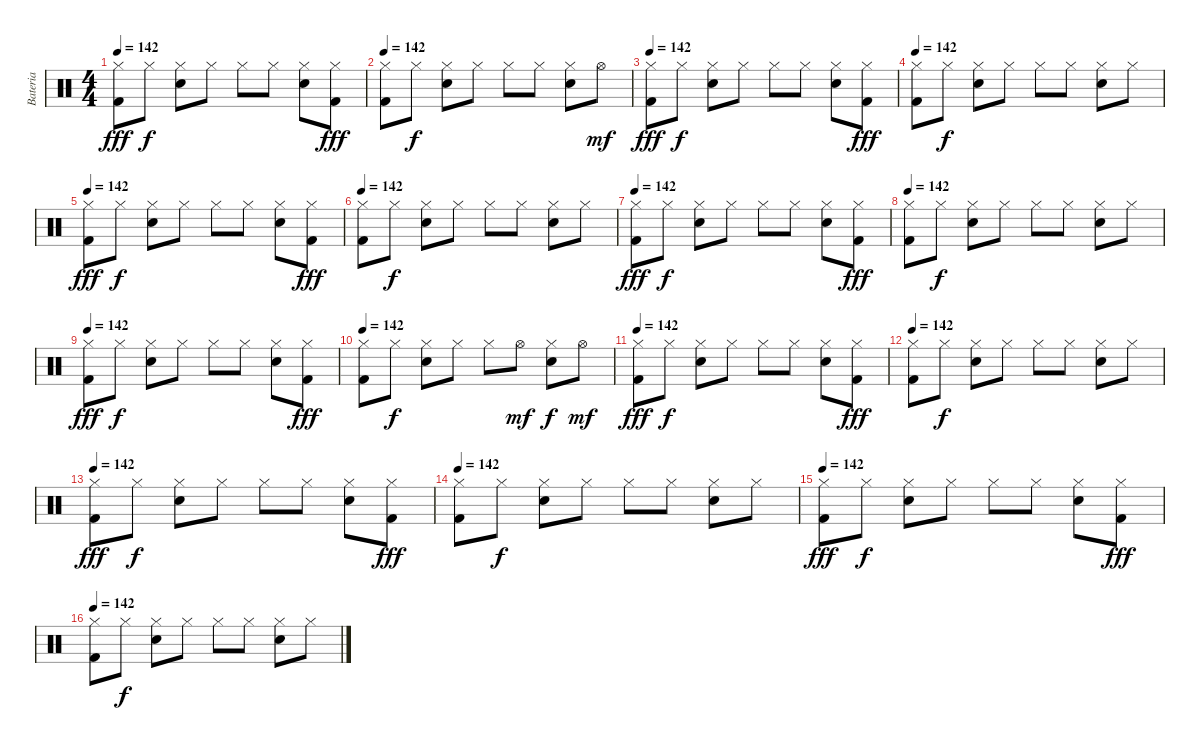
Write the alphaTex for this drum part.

\track ("Bateria" "Bateria") {instrument percussion}
\staff {score}
\articulation defaults
\ts (4 4)
\tempo 142
\clef neutral
\ks c
("Hi-Hat (closed)" "Kick (hit) 2").8{dy fff} "Hi-Hat (closed)".8{dy f} ("Hi-Hat (closed)" "Electric Snare (hit)").8 "Hi-Hat (closed)".8 "Hi-Hat (closed)".8 "Hi-Hat (closed)".8 ("Hi-Hat (closed)" "Electric Snare (hit)").8 ("Hi-Hat (closed)" "Kick (hit) 2").8{dy fff} |
\tempo 142
("Hi-Hat (closed)" "Kick (hit) 2").8 "Hi-Hat (closed)".8{dy f} ("Hi-Hat (closed)" "Electric Snare (hit)").8 "Hi-Hat (closed)".8 "Hi-Hat (closed)".8 "Hi-Hat (closed)".8 ("Hi-Hat (closed)" "Electric Snare (hit)").8 "Hi-Hat (open)".8{dy mf} |
\tempo 142
("Hi-Hat (closed)" "Kick (hit) 2").8{dy fff} "Hi-Hat (closed)".8{dy f} ("Hi-Hat (closed)" "Electric Snare (hit)").8 "Hi-Hat (closed)".8 "Hi-Hat (closed)".8 "Hi-Hat (closed)".8 ("Hi-Hat (closed)" "Electric Snare (hit)").8 ("Hi-Hat (closed)" "Kick (hit) 2").8{dy fff} |
\tempo 142
("Hi-Hat (closed)" "Kick (hit) 2").8 "Hi-Hat (closed)".8{dy f} ("Hi-Hat (closed)" "Electric Snare (hit)").8 "Hi-Hat (closed)".8 "Hi-Hat (closed)".8 "Hi-Hat (closed)".8 ("Hi-Hat (closed)" "Electric Snare (hit)").8 "Hi-Hat (closed)".8 |
\tempo 142
("Hi-Hat (closed)" "Kick (hit) 2").8{dy fff} "Hi-Hat (closed)".8{dy f} ("Hi-Hat (closed)" "Electric Snare (hit)").8 "Hi-Hat (closed)".8 "Hi-Hat (closed)".8 "Hi-Hat (closed)".8 ("Hi-Hat (closed)" "Electric Snare (hit)").8 ("Hi-Hat (closed)" "Kick (hit) 2").8{dy fff} |
\tempo 142
("Hi-Hat (closed)" "Kick (hit) 2").8 "Hi-Hat (closed)".8{dy f} ("Hi-Hat (closed)" "Electric Snare (hit)").8 "Hi-Hat (closed)".8 "Hi-Hat (closed)".8 "Hi-Hat (closed)".8 ("Hi-Hat (closed)" "Electric Snare (hit)").8 "Hi-Hat (closed)".8 |
\tempo 142
("Hi-Hat (closed)" "Kick (hit) 2").8{dy fff} "Hi-Hat (closed)".8{dy f} ("Hi-Hat (closed)" "Electric Snare (hit)").8 "Hi-Hat (closed)".8 "Hi-Hat (closed)".8 "Hi-Hat (closed)".8 ("Hi-Hat (closed)" "Electric Snare (hit)").8 ("Hi-Hat (closed)" "Kick (hit) 2").8{dy fff} |
\tempo 142
("Hi-Hat (closed)" "Kick (hit) 2").8 "Hi-Hat (closed)".8{dy f} ("Hi-Hat (closed)" "Electric Snare (hit)").8 "Hi-Hat (closed)".8 "Hi-Hat (closed)".8 "Hi-Hat (closed)".8 ("Hi-Hat (closed)" "Electric Snare (hit)").8 "Hi-Hat (closed)".8 |
\tempo 142
("Hi-Hat (closed)" "Kick (hit) 2").8{dy fff} "Hi-Hat (closed)".8{dy f} ("Hi-Hat (closed)" "Electric Snare (hit)").8 "Hi-Hat (closed)".8 "Hi-Hat (closed)".8 "Hi-Hat (closed)".8 ("Hi-Hat (closed)" "Electric Snare (hit)").8 ("Hi-Hat (closed)" "Kick (hit) 2").8{dy fff} |
\tempo 142
("Hi-Hat (closed)" "Kick (hit) 2").8 "Hi-Hat (closed)".8{dy f} ("Hi-Hat (closed)" "Electric Snare (hit)").8 "Hi-Hat (closed)".8 "Hi-Hat (closed)".8 "Hi-Hat (open)".8{dy mf} ("Hi-Hat (closed)" "Electric Snare (hit)").8{dy f} "Hi-Hat (open)".8{dy mf} |
\tempo 142
("Hi-Hat (closed)" "Kick (hit) 2").8{dy fff} "Hi-Hat (closed)".8{dy f} ("Hi-Hat (closed)" "Electric Snare (hit)").8 "Hi-Hat (closed)".8 "Hi-Hat (closed)".8 "Hi-Hat (closed)".8 ("Hi-Hat (closed)" "Electric Snare (hit)").8 ("Hi-Hat (closed)" "Kick (hit) 2").8{dy fff} |
\tempo 142
("Hi-Hat (closed)" "Kick (hit) 2").8 "Hi-Hat (closed)".8{dy f} ("Hi-Hat (closed)" "Electric Snare (hit)").8 "Hi-Hat (closed)".8 "Hi-Hat (closed)".8 "Hi-Hat (closed)".8 ("Hi-Hat (closed)" "Electric Snare (hit)").8 "Hi-Hat (closed)".8 |
\tempo 142
("Hi-Hat (closed)" "Kick (hit) 2").8{dy fff} "Hi-Hat (closed)".8{dy f} ("Hi-Hat (closed)" "Electric Snare (hit)").8 "Hi-Hat (closed)".8 "Hi-Hat (closed)".8 "Hi-Hat (closed)".8 ("Hi-Hat (closed)" "Electric Snare (hit)").8 ("Hi-Hat (closed)" "Kick (hit) 2").8{dy fff} |
\tempo 142
("Hi-Hat (closed)" "Kick (hit) 2").8 "Hi-Hat (closed)".8{dy f} ("Hi-Hat (closed)" "Electric Snare (hit)").8 "Hi-Hat (closed)".8 "Hi-Hat (closed)".8 "Hi-Hat (closed)".8 ("Hi-Hat (closed)" "Electric Snare (hit)").8 "Hi-Hat (closed)".8 |
\tempo 142
("Hi-Hat (closed)" "Kick (hit) 2").8{dy fff} "Hi-Hat (closed)".8{dy f} ("Hi-Hat (closed)" "Electric Snare (hit)").8 "Hi-Hat (closed)".8 "Hi-Hat (closed)".8 "Hi-Hat (closed)".8 ("Hi-Hat (closed)" "Electric Snare (hit)").8 ("Hi-Hat (closed)" "Kick (hit) 2").8{dy fff} |
\tempo 142
("Hi-Hat (closed)" "Kick (hit) 2").8 "Hi-Hat (closed)".8{dy f} ("Hi-Hat (closed)" "Electric Snare (hit)").8 "Hi-Hat (closed)".8 "Hi-Hat (closed)".8 "Hi-Hat (closed)".8 ("Hi-Hat (closed)" "Electric Snare (hit)").8 "Hi-Hat (closed)".8
